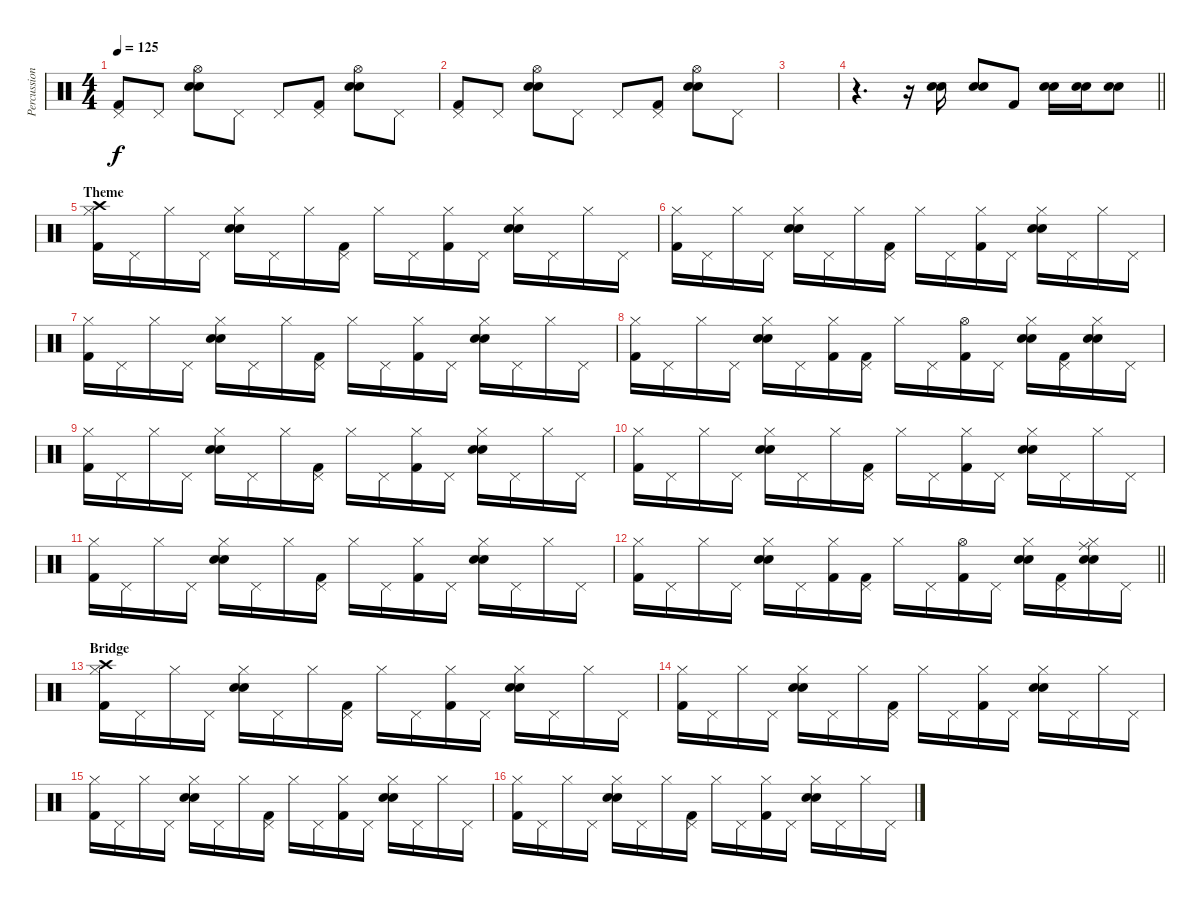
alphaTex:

\track ("Percussion" "Percussion") {instrument percussion}
\staff {score}
\articulation defaults
\ts (4 4)
\tempo 125
\clef neutral
\ks c
("Pedal Hi-Hat (hit)" "Kick (hit) 2").8{dy f} "Pedal Hi-Hat (hit)".8 ("Electric Snare (hit)" "Electric Snare (hit)" "Hi-Hat (open)").8 "Pedal Hi-Hat (hit)".8 "Pedal Hi-Hat (hit)".8 ("Pedal Hi-Hat (hit)" "Kick (hit) 2").8 ("Electric Snare (hit)" "Electric Snare (hit)" "Hi-Hat (open)").8 "Pedal Hi-Hat (hit)".8 |
("Pedal Hi-Hat (hit)" "Kick (hit) 2").8 "Pedal Hi-Hat (hit)".8 ("Electric Snare (hit)" "Electric Snare (hit)" "Hi-Hat (open)").8 "Pedal Hi-Hat (hit)".8 "Pedal Hi-Hat (hit)".8 ("Pedal Hi-Hat (hit)" "Kick (hit) 2").8 ("Electric Snare (hit)" "Electric Snare (hit)" "Hi-Hat (open)").8 "Pedal Hi-Hat (hit)".8 |
|
\barLineRight lightlight
r.4{d} r.16 ("Electric Snare (hit)" "Electric Snare (hit)").16 ("Electric Snare (hit)" "Electric Snare (hit)").8 "Kick (hit) 2".8 ("Electric Snare (hit)" "Electric Snare (hit)").16 ("Electric Snare (hit)" "Electric Snare (hit)").16 ("Electric Snare (hit)" "Electric Snare (hit)").8 |
\section ("" "Theme")
("Crash high (hit)" "Hi-Hat (closed)" "Kick (hit) 2").16 "Pedal Hi-Hat (hit)".16 "Hi-Hat (closed)".16 "Pedal Hi-Hat (hit)".16 ("Electric Snare (hit)" "Electric Snare (hit)" "Hi-Hat (closed)").16 "Pedal Hi-Hat (hit)".16 "Hi-Hat (closed)".16 ("Pedal Hi-Hat (hit)" "Kick (hit) 2").16 "Hi-Hat (closed)".16 "Pedal Hi-Hat (hit)".16 ("Hi-Hat (closed)" "Kick (hit) 2").16 "Pedal Hi-Hat (hit)".16 ("Electric Snare (hit)" "Electric Snare (hit)" "Hi-Hat (closed)").16 "Pedal Hi-Hat (hit)".16 "Hi-Hat (closed)".16 "Pedal Hi-Hat (hit)".16 |
("Hi-Hat (closed)" "Kick (hit) 2").16 "Pedal Hi-Hat (hit)".16 "Hi-Hat (closed)".16 "Pedal Hi-Hat (hit)".16 ("Electric Snare (hit)" "Electric Snare (hit)" "Hi-Hat (closed)").16 "Pedal Hi-Hat (hit)".16 "Hi-Hat (closed)".16 ("Pedal Hi-Hat (hit)" "Kick (hit) 2").16 "Hi-Hat (closed)".16 "Pedal Hi-Hat (hit)".16 ("Hi-Hat (closed)" "Kick (hit) 2").16 "Pedal Hi-Hat (hit)".16 ("Electric Snare (hit)" "Electric Snare (hit)" "Hi-Hat (closed)").16 "Pedal Hi-Hat (hit)".16 "Hi-Hat (closed)".16 "Pedal Hi-Hat (hit)".16 |
("Hi-Hat (closed)" "Kick (hit) 2").16 "Pedal Hi-Hat (hit)".16 "Hi-Hat (closed)".16 "Pedal Hi-Hat (hit)".16 ("Electric Snare (hit)" "Electric Snare (hit)" "Hi-Hat (closed)").16 "Pedal Hi-Hat (hit)".16 "Hi-Hat (closed)".16 ("Pedal Hi-Hat (hit)" "Kick (hit) 2").16 "Hi-Hat (closed)".16 "Pedal Hi-Hat (hit)".16 ("Hi-Hat (closed)" "Kick (hit) 2").16 "Pedal Hi-Hat (hit)".16 ("Electric Snare (hit)" "Electric Snare (hit)" "Hi-Hat (closed)").16 "Pedal Hi-Hat (hit)".16 "Hi-Hat (closed)".16 "Pedal Hi-Hat (hit)".16 |
("Hi-Hat (closed)" "Kick (hit) 2").16 "Pedal Hi-Hat (hit)".16 "Hi-Hat (closed)".16 "Pedal Hi-Hat (hit)".16 ("Electric Snare (hit)" "Electric Snare (hit)" "Hi-Hat (closed)").16 "Pedal Hi-Hat (hit)".16 ("Hi-Hat (closed)" "Kick (hit) 2").16 ("Pedal Hi-Hat (hit)" "Kick (hit) 2").16 "Hi-Hat (closed)".16 "Pedal Hi-Hat (hit)".16 ("Hi-Hat (open)" "Kick (hit) 2").16 "Pedal Hi-Hat (hit)".16 ("Electric Snare (hit)" "Electric Snare (hit)" "Hi-Hat (closed)").16 ("Pedal Hi-Hat (hit)" "Kick (hit) 2").16 ("Electric Snare (hit)" "Electric Snare (hit)" "Hi-Hat (closed)").16 "Pedal Hi-Hat (hit)".16 |
("Hi-Hat (closed)" "Kick (hit) 2").16 "Pedal Hi-Hat (hit)".16 "Hi-Hat (closed)".16 "Pedal Hi-Hat (hit)".16 ("Electric Snare (hit)" "Electric Snare (hit)" "Hi-Hat (closed)").16 "Pedal Hi-Hat (hit)".16 "Hi-Hat (closed)".16 ("Pedal Hi-Hat (hit)" "Kick (hit) 2").16 "Hi-Hat (closed)".16 "Pedal Hi-Hat (hit)".16 ("Hi-Hat (closed)" "Kick (hit) 2").16 "Pedal Hi-Hat (hit)".16 ("Electric Snare (hit)" "Electric Snare (hit)" "Hi-Hat (closed)").16 "Pedal Hi-Hat (hit)".16 "Hi-Hat (closed)".16 "Pedal Hi-Hat (hit)".16 |
("Hi-Hat (closed)" "Kick (hit) 2").16 "Pedal Hi-Hat (hit)".16 "Hi-Hat (closed)".16 "Pedal Hi-Hat (hit)".16 ("Electric Snare (hit)" "Electric Snare (hit)" "Hi-Hat (closed)").16 "Pedal Hi-Hat (hit)".16 "Hi-Hat (closed)".16 ("Pedal Hi-Hat (hit)" "Kick (hit) 2").16 "Hi-Hat (closed)".16 "Pedal Hi-Hat (hit)".16 ("Hi-Hat (closed)" "Kick (hit) 2").16 "Pedal Hi-Hat (hit)".16 ("Electric Snare (hit)" "Electric Snare (hit)" "Hi-Hat (closed)").16 "Pedal Hi-Hat (hit)".16 "Hi-Hat (closed)".16 "Pedal Hi-Hat (hit)".16 |
("Hi-Hat (closed)" "Kick (hit) 2").16 "Pedal Hi-Hat (hit)".16 "Hi-Hat (closed)".16 "Pedal Hi-Hat (hit)".16 ("Electric Snare (hit)" "Electric Snare (hit)" "Hi-Hat (closed)").16 "Pedal Hi-Hat (hit)".16 "Hi-Hat (closed)".16 ("Pedal Hi-Hat (hit)" "Kick (hit) 2").16 "Hi-Hat (closed)".16 "Pedal Hi-Hat (hit)".16 ("Hi-Hat (closed)" "Kick (hit) 2").16 "Pedal Hi-Hat (hit)".16 ("Electric Snare (hit)" "Electric Snare (hit)" "Hi-Hat (closed)").16 "Pedal Hi-Hat (hit)".16 "Hi-Hat (closed)".16 "Pedal Hi-Hat (hit)".16 |
\barLineRight lightlight
("Hi-Hat (closed)" "Kick (hit) 2").16 "Pedal Hi-Hat (hit)".16 "Hi-Hat (closed)".16 "Pedal Hi-Hat (hit)".16 ("Electric Snare (hit)" "Electric Snare (hit)" "Hi-Hat (closed)").16 "Pedal Hi-Hat (hit)".16 ("Hi-Hat (closed)" "Kick (hit) 2").16 ("Pedal Hi-Hat (hit)" "Kick (hit) 2").16 "Hi-Hat (closed)".16 "Pedal Hi-Hat (hit)".16 ("Hi-Hat (open)" "Kick (hit) 2").16 "Pedal Hi-Hat (hit)".16 ("Electric Snare (hit)" "Electric Snare (hit)" "Hi-Hat (closed)").16 ("Pedal Hi-Hat (hit)" "Kick (hit) 2").16 ("Ride (middle)" "Electric Snare (hit)" "Electric Snare (hit)" "Hi-Hat (closed)").16 "Pedal Hi-Hat (hit)".16 |
\section ("" "Bridge")
("Crash high (hit)" "Hi-Hat (closed)" "Kick (hit) 2").16 "Pedal Hi-Hat (hit)".16 "Hi-Hat (closed)".16 "Pedal Hi-Hat (hit)".16 ("Electric Snare (hit)" "Electric Snare (hit)" "Hi-Hat (closed)").16 "Pedal Hi-Hat (hit)".16 "Hi-Hat (closed)".16 ("Pedal Hi-Hat (hit)" "Kick (hit) 2").16 "Hi-Hat (closed)".16 "Pedal Hi-Hat (hit)".16 ("Hi-Hat (closed)" "Kick (hit) 2").16 "Pedal Hi-Hat (hit)".16 ("Electric Snare (hit)" "Electric Snare (hit)" "Hi-Hat (closed)").16 "Pedal Hi-Hat (hit)".16 "Hi-Hat (closed)".16 "Pedal Hi-Hat (hit)".16 |
("Hi-Hat (closed)" "Kick (hit) 2").16 "Pedal Hi-Hat (hit)".16 "Hi-Hat (closed)".16 "Pedal Hi-Hat (hit)".16 ("Electric Snare (hit)" "Electric Snare (hit)" "Hi-Hat (closed)").16 "Pedal Hi-Hat (hit)".16 "Hi-Hat (closed)".16 ("Pedal Hi-Hat (hit)" "Kick (hit) 2").16 "Hi-Hat (closed)".16 "Pedal Hi-Hat (hit)".16 ("Hi-Hat (closed)" "Kick (hit) 2").16 "Pedal Hi-Hat (hit)".16 ("Electric Snare (hit)" "Electric Snare (hit)" "Hi-Hat (closed)").16 "Pedal Hi-Hat (hit)".16 "Hi-Hat (closed)".16 "Pedal Hi-Hat (hit)".16 |
("Hi-Hat (closed)" "Kick (hit) 2").16 "Pedal Hi-Hat (hit)".16 "Hi-Hat (closed)".16 "Pedal Hi-Hat (hit)".16 ("Electric Snare (hit)" "Electric Snare (hit)" "Hi-Hat (closed)").16 "Pedal Hi-Hat (hit)".16 "Hi-Hat (closed)".16 ("Pedal Hi-Hat (hit)" "Kick (hit) 2").16 "Hi-Hat (closed)".16 "Pedal Hi-Hat (hit)".16 ("Hi-Hat (closed)" "Kick (hit) 2").16 "Pedal Hi-Hat (hit)".16 ("Electric Snare (hit)" "Electric Snare (hit)" "Hi-Hat (closed)").16 "Pedal Hi-Hat (hit)".16 "Hi-Hat (closed)".16 "Pedal Hi-Hat (hit)".16 |
("Hi-Hat (closed)" "Kick (hit) 2").16 "Pedal Hi-Hat (hit)".16 "Hi-Hat (closed)".16 "Pedal Hi-Hat (hit)".16 ("Electric Snare (hit)" "Electric Snare (hit)" "Hi-Hat (closed)").16 "Pedal Hi-Hat (hit)".16 "Hi-Hat (closed)".16 ("Pedal Hi-Hat (hit)" "Kick (hit) 2").16 "Hi-Hat (closed)".16 "Pedal Hi-Hat (hit)".16 ("Hi-Hat (closed)" "Kick (hit) 2").16 "Pedal Hi-Hat (hit)".16 ("Electric Snare (hit)" "Electric Snare (hit)" "Hi-Hat (closed)").16 "Pedal Hi-Hat (hit)".16 "Hi-Hat (closed)".16 "Pedal Hi-Hat (hit)".16
